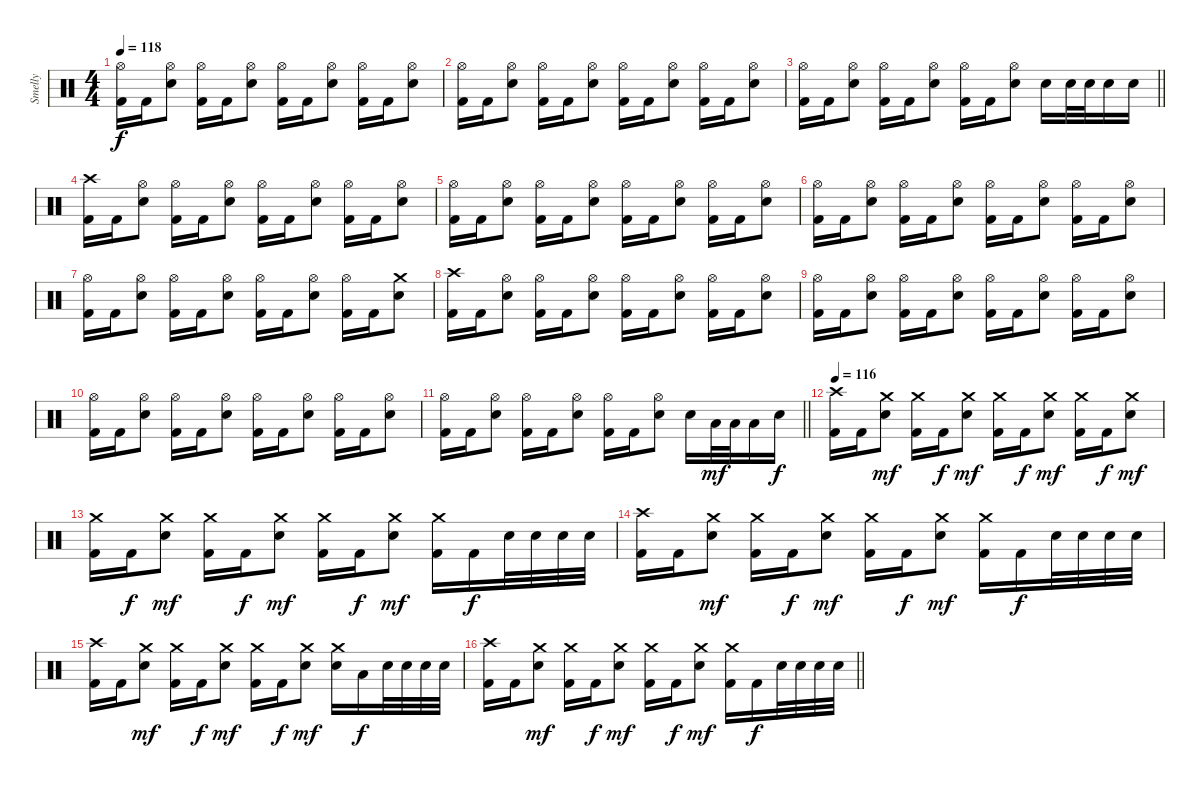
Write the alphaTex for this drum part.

\track ("Smelly" "Smelly") {instrument percussion}
\staff {score}
\articulation defaults
\ts (4 4)
\tempo 118
\clef neutral
\ks c
("Hi-Hat (open)" "Kick (hit) 2").16{dy f} "Kick (hit) 2".16 ("Hi-Hat (open)" "Electric Snare (hit)").8 ("Hi-Hat (open)" "Kick (hit) 2").16 "Kick (hit) 2".16 ("Hi-Hat (open)" "Electric Snare (hit)").8 ("Hi-Hat (open)" "Kick (hit) 2").16 "Kick (hit) 2".16 ("Hi-Hat (open)" "Electric Snare (hit)").8 ("Hi-Hat (open)" "Kick (hit) 2").16 "Kick (hit) 2".16 ("Hi-Hat (open)" "Electric Snare (hit)").8 |
("Hi-Hat (open)" "Kick (hit) 2").16 "Kick (hit) 2".16 ("Hi-Hat (open)" "Electric Snare (hit)").8 ("Hi-Hat (open)" "Kick (hit) 2").16 "Kick (hit) 2".16 ("Hi-Hat (open)" "Electric Snare (hit)").8 ("Hi-Hat (open)" "Kick (hit) 2").16 "Kick (hit) 2".16 ("Hi-Hat (open)" "Electric Snare (hit)").8 ("Hi-Hat (open)" "Kick (hit) 2").16 "Kick (hit) 2".16 ("Hi-Hat (open)" "Electric Snare (hit)").8 |
\barLineRight lightlight
("Hi-Hat (open)" "Kick (hit) 2").16 "Kick (hit) 2".16 ("Hi-Hat (open)" "Electric Snare (hit)").8 ("Hi-Hat (open)" "Kick (hit) 2").16 "Kick (hit) 2".16 ("Hi-Hat (open)" "Electric Snare (hit)").8 ("Hi-Hat (open)" "Kick (hit) 2").16 "Kick (hit) 2".16 ("Hi-Hat (open)" "Electric Snare (hit)").8 "Electric Snare (hit)".16 "Electric Snare (hit)".32 "Electric Snare (hit)".32 "Electric Snare (hit)".16 "Electric Snare (hit)".16 |
("Crash high (hit)" "Kick (hit) 2").16 "Kick (hit) 2".16 ("Hi-Hat (open)" "Electric Snare (hit)").8 ("Hi-Hat (open)" "Kick (hit) 2").16 "Kick (hit) 2".16 ("Hi-Hat (open)" "Electric Snare (hit)").8 ("Hi-Hat (open)" "Kick (hit) 2").16 "Kick (hit) 2".16 ("Hi-Hat (open)" "Electric Snare (hit)").8 ("Hi-Hat (open)" "Kick (hit) 2").16 "Kick (hit) 2".16 ("Hi-Hat (open)" "Electric Snare (hit)").8 |
("Hi-Hat (open)" "Kick (hit) 2").16 "Kick (hit) 2".16 ("Hi-Hat (open)" "Electric Snare (hit)").8 ("Hi-Hat (open)" "Kick (hit) 2").16 "Kick (hit) 2".16 ("Hi-Hat (open)" "Electric Snare (hit)").8 ("Hi-Hat (open)" "Kick (hit) 2").16 "Kick (hit) 2".16 ("Hi-Hat (open)" "Electric Snare (hit)").8 ("Hi-Hat (open)" "Kick (hit) 2").16 "Kick (hit) 2".16 ("Hi-Hat (open)" "Electric Snare (hit)").8 |
("Hi-Hat (open)" "Kick (hit) 2").16 "Kick (hit) 2".16 ("Hi-Hat (open)" "Electric Snare (hit)").8 ("Hi-Hat (open)" "Kick (hit) 2").16 "Kick (hit) 2".16 ("Hi-Hat (open)" "Electric Snare (hit)").8 ("Hi-Hat (open)" "Kick (hit) 2").16 "Kick (hit) 2".16 ("Hi-Hat (open)" "Electric Snare (hit)").8 ("Hi-Hat (open)" "Kick (hit) 2").16 "Kick (hit) 2".16 ("Hi-Hat (open)" "Electric Snare (hit)").8 |
("Hi-Hat (open)" "Kick (hit) 2").16 "Kick (hit) 2".16 ("Hi-Hat (open)" "Electric Snare (hit)").8 ("Hi-Hat (open)" "Kick (hit) 2").16 "Kick (hit) 2".16 ("Hi-Hat (open)" "Electric Snare (hit)").8 ("Hi-Hat (open)" "Kick (hit) 2").16 "Kick (hit) 2".16 ("Hi-Hat (open)" "Electric Snare (hit)").8 ("Hi-Hat (open)" "Kick (hit) 2").16 "Kick (hit) 2".16 ("Crash medium (hit)" "Electric Snare (hit)").8 |
("Crash high (hit)" "Kick (hit) 2").16 "Kick (hit) 2".16 ("Hi-Hat (open)" "Electric Snare (hit)").8 ("Hi-Hat (open)" "Kick (hit) 2").16 "Kick (hit) 2".16 ("Hi-Hat (open)" "Electric Snare (hit)").8 ("Hi-Hat (open)" "Kick (hit) 2").16 "Kick (hit) 2".16 ("Hi-Hat (open)" "Electric Snare (hit)").8 ("Hi-Hat (open)" "Kick (hit) 2").16 "Kick (hit) 2".16 ("Hi-Hat (open)" "Electric Snare (hit)").8 |
("Hi-Hat (open)" "Kick (hit) 2").16 "Kick (hit) 2".16 ("Hi-Hat (open)" "Electric Snare (hit)").8 ("Hi-Hat (open)" "Kick (hit) 2").16 "Kick (hit) 2".16 ("Hi-Hat (open)" "Electric Snare (hit)").8 ("Hi-Hat (open)" "Kick (hit) 2").16 "Kick (hit) 2".16 ("Hi-Hat (open)" "Electric Snare (hit)").8 ("Hi-Hat (open)" "Kick (hit) 2").16 "Kick (hit) 2".16 ("Hi-Hat (open)" "Electric Snare (hit)").8 |
("Hi-Hat (open)" "Kick (hit) 2").16 "Kick (hit) 2".16 ("Hi-Hat (open)" "Electric Snare (hit)").8 ("Hi-Hat (open)" "Kick (hit) 2").16 "Kick (hit) 2".16 ("Hi-Hat (open)" "Electric Snare (hit)").8 ("Hi-Hat (open)" "Kick (hit) 2").16 "Kick (hit) 2".16 ("Hi-Hat (open)" "Electric Snare (hit)").8 ("Hi-Hat (open)" "Kick (hit) 2").16 "Kick (hit) 2".16 ("Hi-Hat (open)" "Electric Snare (hit)").8 |
\barLineRight lightlight
("Hi-Hat (open)" "Kick (hit) 2").16 "Kick (hit) 2".16 ("Hi-Hat (open)" "Electric Snare (hit)").8 ("Hi-Hat (open)" "Kick (hit) 2").16 "Kick (hit) 2".16 ("Hi-Hat (open)" "Electric Snare (hit)").8 ("Hi-Hat (open)" "Kick (hit) 2").16 "Kick (hit) 2".16 ("Hi-Hat (open)" "Electric Snare (hit)").8 "Electric Snare (hit)".16 "Low Tom (hit)".32{dy mf} "Low Tom (hit)".32 "Low Tom (hit)".16 "Electric Snare (hit)".16{dy f} |
\section ("" "")
\tempo 116
("Crash high (hit)" "Kick (hit) 2").16 "Kick (hit) 2".16 ("Crash medium (hit)" "Electric Snare (hit)").8{dy mf} ("Crash medium (hit)" "Kick (hit) 2").16 "Kick (hit) 2".16{dy f} ("Crash medium (hit)" "Electric Snare (hit)").8{dy mf} ("Crash medium (hit)" "Kick (hit) 2").16 "Kick (hit) 2".16{dy f} ("Crash medium (hit)" "Electric Snare (hit)").8{dy mf} ("Crash medium (hit)" "Kick (hit) 2").16 "Kick (hit) 2".16{dy f} ("Crash medium (hit)" "Electric Snare (hit)").8{dy mf} |
("Crash medium (hit)" "Kick (hit) 2").16 "Kick (hit) 2".16{dy f} ("Crash medium (hit)" "Electric Snare (hit)").8{dy mf} ("Crash medium (hit)" "Kick (hit) 2").16 "Kick (hit) 2".16{dy f} ("Crash medium (hit)" "Electric Snare (hit)").8{dy mf} ("Crash medium (hit)" "Kick (hit) 2").16 "Kick (hit) 2".16{dy f} ("Crash medium (hit)" "Electric Snare (hit)").8{dy mf} ("Crash medium (hit)" "Kick (hit) 2").16 "Kick (hit) 2".16{dy f} "Electric Snare (hit)".32 "Electric Snare (hit)".32 "Electric Snare (hit)".32 "Electric Snare (hit)".32 |
("Crash high (hit)" "Kick (hit) 2").16 "Kick (hit) 2".16 ("Crash medium (hit)" "Electric Snare (hit)").8{dy mf} ("Crash medium (hit)" "Kick (hit) 2").16 "Kick (hit) 2".16{dy f} ("Crash medium (hit)" "Electric Snare (hit)").8{dy mf} ("Crash medium (hit)" "Kick (hit) 2").16 "Kick (hit) 2".16{dy f} ("Crash medium (hit)" "Electric Snare (hit)").8{dy mf} ("Crash medium (hit)" "Kick (hit) 2").16 "Kick (hit) 2".16{dy f} "Electric Snare (hit)".32 "Electric Snare (hit)".32 "Electric Snare (hit)".32 "Electric Snare (hit)".32 |
("Crash high (hit)" "Kick (hit) 2").16 "Kick (hit) 2".16 ("Crash medium (hit)" "Electric Snare (hit)").8{dy mf} ("Crash medium (hit)" "Kick (hit) 2").16 "Kick (hit) 2".16{dy f} ("Crash medium (hit)" "Electric Snare (hit)").8{dy mf} ("Crash medium (hit)" "Kick (hit) 2").16 "Kick (hit) 2".16{dy f} ("Crash medium (hit)" "Electric Snare (hit)").8{dy mf} ("Crash medium (hit)" "Electric Snare (hit)").16 "Low Tom (hit)".16{dy f} "Electric Snare (hit)".32 "Electric Snare (hit)".32 "Electric Snare (hit)".32 "Electric Snare (hit)".32 |
\barLineRight lightlight
("Crash high (hit)" "Kick (hit) 2").16 "Kick (hit) 2".16 ("Crash medium (hit)" "Electric Snare (hit)").8{dy mf} ("Crash medium (hit)" "Kick (hit) 2").16 "Kick (hit) 2".16{dy f} ("Crash medium (hit)" "Electric Snare (hit)").8{dy mf} ("Crash medium (hit)" "Kick (hit) 2").16 "Kick (hit) 2".16{dy f} ("Crash medium (hit)" "Electric Snare (hit)").8{dy mf} ("Crash medium (hit)" "Kick (hit) 2").16 "Kick (hit) 2".16{dy f} "Electric Snare (hit)".32 "Electric Snare (hit)".32 "Electric Snare (hit)".32 "Electric Snare (hit)".32
